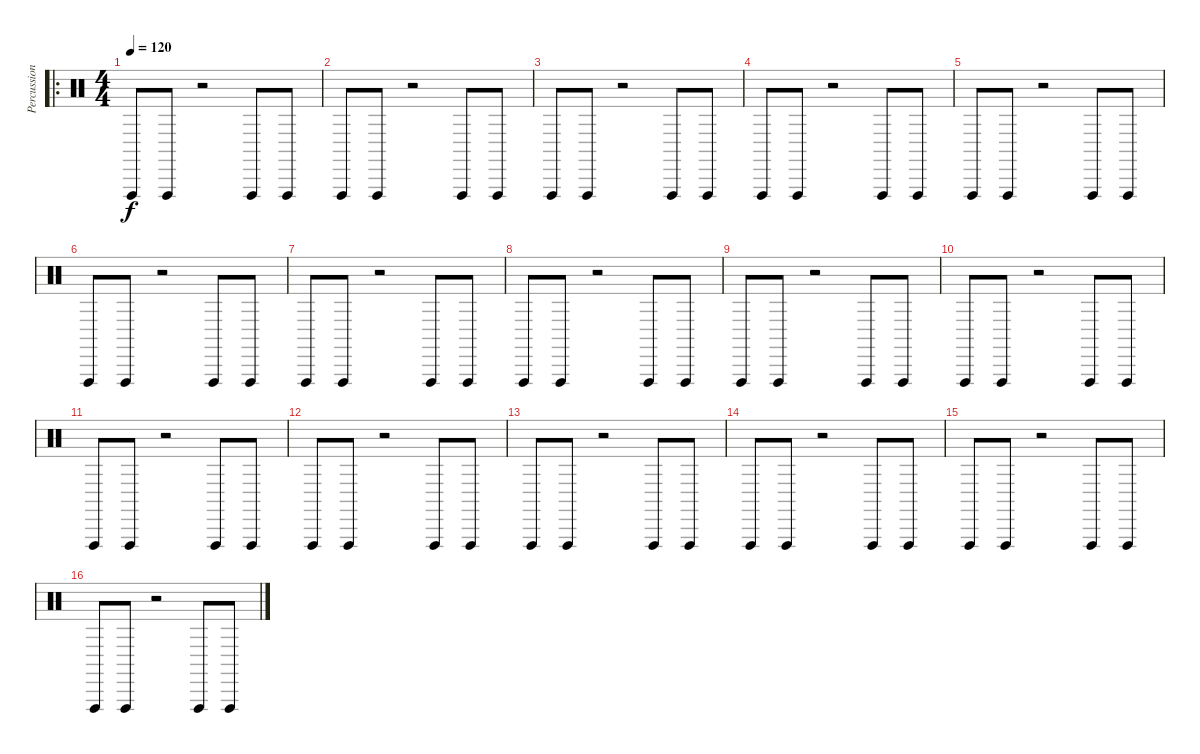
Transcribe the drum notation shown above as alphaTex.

\track ("Percussion Intro" "Percussion") {instrument percussion}
\staff {score}
\articulation defaults
\ro
\ts (4 4)
\tempo 120
\clef neutral
\ks c "Vibraslap (hit)".8{dy f} "Vibraslap (hit)".8
r.2 "Vibraslap (hit)".8 "Vibraslap (hit)".8 |
"Vibraslap (hit)".8 "Vibraslap (hit)".8 r.2 "Vibraslap (hit)".8 "Vibraslap (hit)".8 |
"Vibraslap (hit)".8 "Vibraslap (hit)".8 r.2 "Vibraslap (hit)".8 "Vibraslap (hit)".8 |
"Vibraslap (hit)".8 "Vibraslap (hit)".8 r.2 "Vibraslap (hit)".8 "Vibraslap (hit)".8 |
"Vibraslap (hit)".8 "Vibraslap (hit)".8 r.2 "Vibraslap (hit)".8 "Vibraslap (hit)".8 |
"Vibraslap (hit)".8 "Vibraslap (hit)".8 r.2 "Vibraslap (hit)".8 "Vibraslap (hit)".8 |
"Vibraslap (hit)".8 "Vibraslap (hit)".8 r.2 "Vibraslap (hit)".8 "Vibraslap (hit)".8 |
"Vibraslap (hit)".8 "Vibraslap (hit)".8 r.2 "Vibraslap (hit)".8 "Vibraslap (hit)".8 |
"Vibraslap (hit)".8 "Vibraslap (hit)".8 r.2 "Vibraslap (hit)".8 "Vibraslap (hit)".8 |
"Vibraslap (hit)".8 "Vibraslap (hit)".8 r.2 "Vibraslap (hit)".8 "Vibraslap (hit)".8 |
"Vibraslap (hit)".8 "Vibraslap (hit)".8 r.2 "Vibraslap (hit)".8 "Vibraslap (hit)".8 |
"Vibraslap (hit)".8 "Vibraslap (hit)".8 r.2 "Vibraslap (hit)".8 "Vibraslap (hit)".8 |
"Vibraslap (hit)".8 "Vibraslap (hit)".8 r.2 "Vibraslap (hit)".8 "Vibraslap (hit)".8 |
"Vibraslap (hit)".8 "Vibraslap (hit)".8 r.2 "Vibraslap (hit)".8 "Vibraslap (hit)".8 |
"Vibraslap (hit)".8 "Vibraslap (hit)".8 r.2 "Vibraslap (hit)".8 "Vibraslap (hit)".8 |
"Vibraslap (hit)".8 "Vibraslap (hit)".8 r.2 "Vibraslap (hit)".8 "Vibraslap (hit)".8
